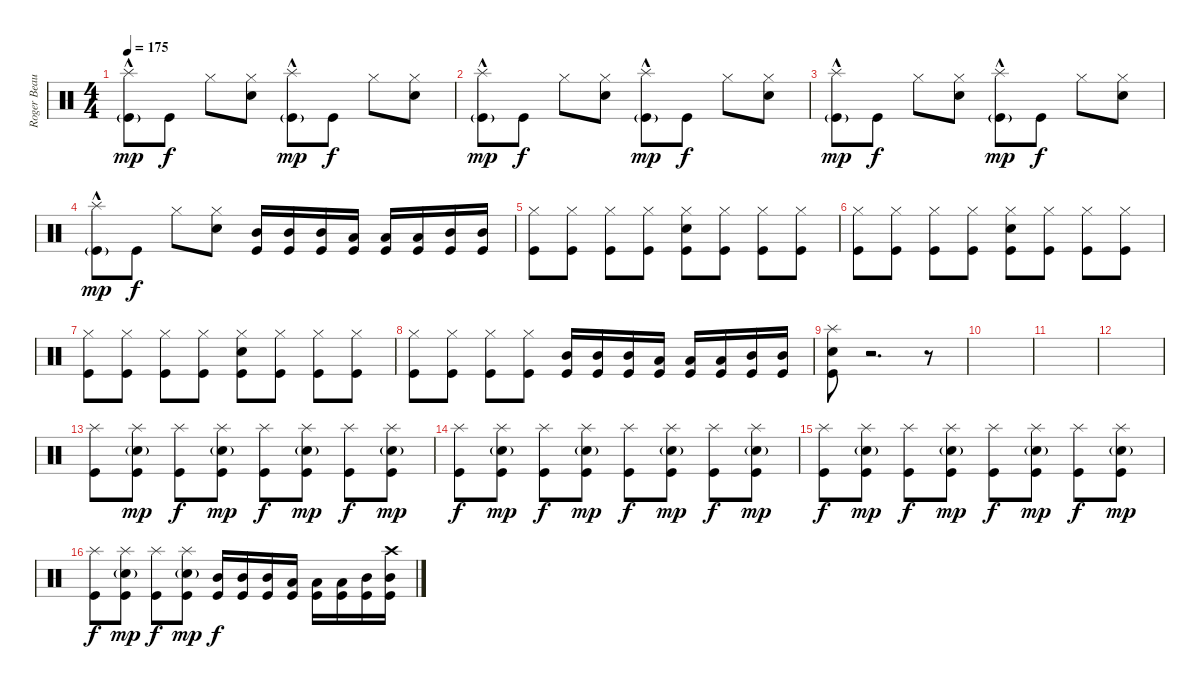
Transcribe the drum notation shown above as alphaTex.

\track ("Roger Beaujard - Drum Programming  Sam I" "Roger Beau") {instrument percussion}
\staff {score}
\articulation defaults
\ts (4 4)
\tempo 175
\clef neutral
\ks c
("Splash (hit)"{hac} "Kick (hit)"{g}).8{dy mp} "Kick (hit)".8{dy f} "Hi-Hat (closed)".8 ("Hi-Hat (closed)" "Snare (hit) 2").8 ("Splash (hit)"{hac} "Kick (hit)"{g}).8{dy mp} "Kick (hit)".8{dy f} "Hi-Hat (closed)".8 ("Hi-Hat (closed)" "Snare (hit) 2").8 |
("Splash (hit)"{hac} "Kick (hit)"{g}).8{dy mp} "Kick (hit)".8{dy f} "Hi-Hat (closed)".8 ("Hi-Hat (closed)" "Snare (hit) 2").8 ("Splash (hit)"{hac} "Kick (hit)"{g}).8{dy mp} "Kick (hit)".8{dy f} "Hi-Hat (closed)".8 ("Hi-Hat (closed)" "Snare (hit) 2").8 |
("Splash (hit)"{hac} "Kick (hit)"{g}).8{dy mp} "Kick (hit)".8{dy f} "Hi-Hat (closed)".8 ("Hi-Hat (closed)" "Snare (hit) 2").8 ("Splash (hit)"{hac} "Kick (hit)"{g}).8{dy mp} "Kick (hit)".8{dy f} "Hi-Hat (closed)".8 ("Hi-Hat (closed)" "Snare (hit) 2").8 |
("Splash (hit)"{hac} "Kick (hit)"{g}).8{dy mp} "Kick (hit)".8{dy f} "Hi-Hat (closed)".8 ("Hi-Hat (closed)" "Snare (hit) 2").8 ("Mid Tom (hit)" "Kick (hit)").16 ("Mid Tom (hit)" "Kick (hit)").16 ("Mid Tom (hit)" "Kick (hit)").16 ("Low Tom (hit)" "Kick (hit)").16 ("Low Tom (hit)" "Kick (hit)").16 ("Low Tom (hit)" "Kick (hit)").16 ("Mid Tom (hit)" "Kick (hit)").16 ("Mid Tom (hit)" "Kick (hit)").16 |
("Hi-Hat (closed)" "Kick (hit)").8 ("Hi-Hat (closed)" "Kick (hit)").8 ("Hi-Hat (closed)" "Kick (hit)").8 ("Hi-Hat (closed)" "Kick (hit)").8 ("Hi-Hat (closed)" "Electric Snare (hit)" "Kick (hit)").8 ("Hi-Hat (closed)" "Kick (hit)").8 ("Hi-Hat (closed)" "Kick (hit)").8 ("Hi-Hat (closed)" "Kick (hit)").8 |
("Hi-Hat (closed)" "Kick (hit)").8 ("Hi-Hat (closed)" "Kick (hit)").8 ("Hi-Hat (closed)" "Kick (hit)").8 ("Hi-Hat (closed)" "Kick (hit)").8 ("Hi-Hat (closed)" "Electric Snare (hit)" "Kick (hit)").8 ("Hi-Hat (closed)" "Kick (hit)").8 ("Hi-Hat (closed)" "Kick (hit)").8 ("Hi-Hat (closed)" "Kick (hit)").8 |
("Hi-Hat (closed)" "Kick (hit)").8 ("Hi-Hat (closed)" "Kick (hit)").8 ("Hi-Hat (closed)" "Kick (hit)").8 ("Hi-Hat (closed)" "Kick (hit)").8 ("Hi-Hat (closed)" "Electric Snare (hit)" "Kick (hit)").8 ("Hi-Hat (closed)" "Kick (hit)").8 ("Hi-Hat (closed)" "Kick (hit)").8 ("Hi-Hat (closed)" "Kick (hit)").8 |
("Hi-Hat (closed)" "Kick (hit)").8 ("Hi-Hat (closed)" "Kick (hit)").8 ("Hi-Hat (closed)" "Kick (hit)").8 ("Hi-Hat (closed)" "Kick (hit)").8 ("Mid Tom (hit)" "Kick (hit)").16 ("Mid Tom (hit)" "Kick (hit)").16 ("Mid Tom (hit)" "Kick (hit)").16 ("Low Tom (hit)" "Kick (hit)").16 ("Low Tom (hit)" "Kick (hit)").16 ("Low Tom (hit)" "Kick (hit)").16 ("Mid Tom (hit)" "Kick (hit)").16 ("Mid Tom (hit)" "Kick (hit)").16 |
("Splash (hit)" "Electric Snare (hit)" "Kick (hit)").8 r.2{d} r.8 |
|
|
|
("Splash (hit)" "Kick (hit)").8 ("Splash (hit)" "Electric Snare (hit)"{g} "Kick (hit)").8{dy mp} ("Splash (hit)" "Kick (hit)").8{dy f} ("Splash (hit)" "Electric Snare (hit)"{g} "Kick (hit)").8{dy mp} ("Splash (hit)" "Kick (hit)").8{dy f} ("Splash (hit)" "Electric Snare (hit)"{g} "Kick (hit)").8{dy mp} ("Splash (hit)" "Kick (hit)").8{dy f} ("Splash (hit)" "Electric Snare (hit)"{g} "Kick (hit)").8{dy mp} |
("Splash (hit)" "Kick (hit)").8{dy f} ("Splash (hit)" "Electric Snare (hit)"{g} "Kick (hit)").8{dy mp} ("Splash (hit)" "Kick (hit)").8{dy f} ("Splash (hit)" "Electric Snare (hit)"{g} "Kick (hit)").8{dy mp} ("Splash (hit)" "Kick (hit)").8{dy f} ("Splash (hit)" "Electric Snare (hit)"{g} "Kick (hit)").8{dy mp} ("Splash (hit)" "Kick (hit)").8{dy f} ("Splash (hit)" "Electric Snare (hit)"{g} "Kick (hit)").8{dy mp} |
("Splash (hit)" "Kick (hit)").8{dy f} ("Splash (hit)" "Electric Snare (hit)"{g} "Kick (hit)").8{dy mp} ("Splash (hit)" "Kick (hit)").8{dy f} ("Splash (hit)" "Electric Snare (hit)"{g} "Kick (hit)").8{dy mp} ("Splash (hit)" "Kick (hit)").8{dy f} ("Splash (hit)" "Electric Snare (hit)"{g} "Kick (hit)").8{dy mp} ("Splash (hit)" "Kick (hit)").8{dy f} ("Splash (hit)" "Electric Snare (hit)"{g} "Kick (hit)").8{dy mp} |
("Splash (hit)" "Kick (hit)").8{dy f} ("Splash (hit)" "Electric Snare (hit)"{g} "Kick (hit)").8{dy mp} ("Splash (hit)" "Kick (hit)").8{dy f} ("Splash (hit)" "Electric Snare (hit)"{g} "Kick (hit)").8{dy mp} ("Mid Tom (hit)" "Kick (hit)").16{dy f} ("Mid Tom (hit)" "Kick (hit)").16 ("Mid Tom (hit)" "Kick (hit)").16 ("Low Tom (hit)" "Kick (hit)").16 ("Low Tom (hit)" "Kick (hit)").16 ("Low Tom (hit)" "Kick (hit)").16 ("Mid Tom (hit)" "Kick (hit)").16 ("Crash high (hit)" "Mid Tom (hit)" "Kick (hit)").16
